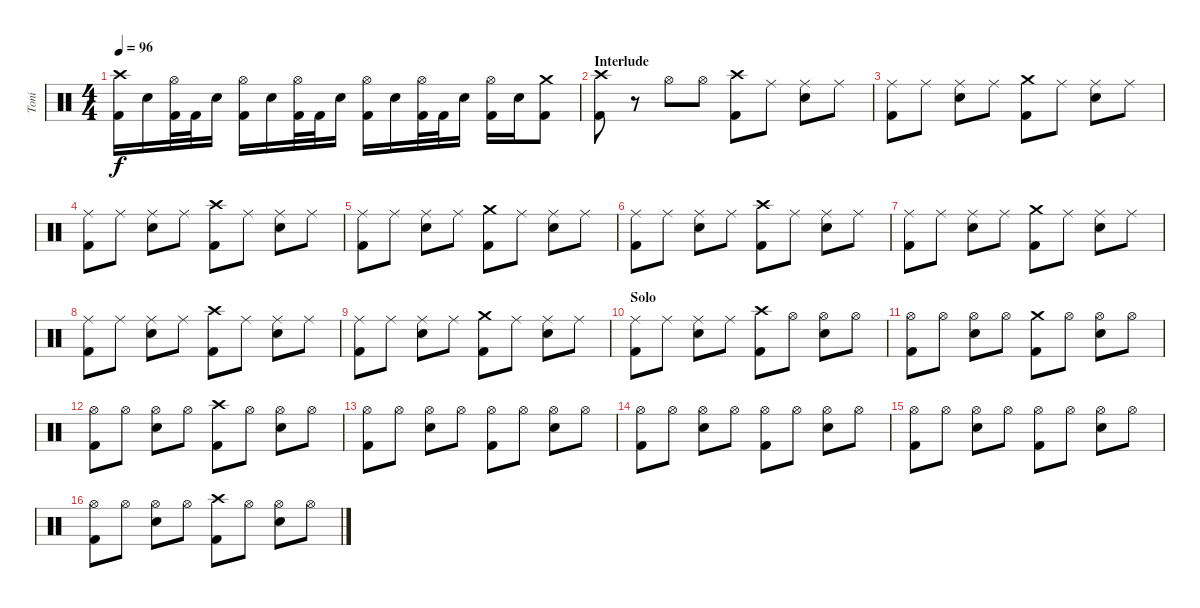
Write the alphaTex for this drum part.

\track ("Toni" "Toni") {instrument percussion}
\staff {score}
\articulation defaults
\ts (4 4)
\tempo 96
\clef neutral
\ks c
("Crash high (hit)" "Kick (hit) 2").16{dy f} "Electric Snare (hit)".16 ("Hi-Hat (open)" "Kick (hit) 2").32 "Kick (hit) 2".32 "Electric Snare (hit)".16 ("Hi-Hat (open)" "Kick (hit) 2").16 "Electric Snare (hit)".16 ("Hi-Hat (open)" "Kick (hit) 2").32 "Kick (hit) 2".32 "Electric Snare (hit)".16 ("Hi-Hat (open)" "Kick (hit) 2").16 "Electric Snare (hit)".16 ("Hi-Hat (open)" "Kick (hit) 2").32 "Kick (hit) 2".32 "Electric Snare (hit)".16 ("Hi-Hat (open)" "Kick (hit) 2").16 "Electric Snare (hit)".16 ("Crash medium (hit)" "Kick (hit) 2").8 |
\section ("" "Interlude")
("Crash high (hit)" "Kick (hit) 2").8 r.8 "Hi-Hat (open)".8 "Hi-Hat (open)".8 ("Crash high (hit)" "Kick (hit) 2").8 "Ride (middle)".8 ("Ride (middle)" "Electric Snare (hit)").8 "Ride (middle)".8 |
("Ride (middle)" "Kick (hit) 2").8 "Ride (middle)".8 ("Ride (middle)" "Electric Snare (hit)").8 "Ride (middle)".8 ("Crash medium (hit)" "Kick (hit) 2").8 "Ride (middle)".8 ("Ride (middle)" "Electric Snare (hit)").8 "Ride (middle)".8 |
("Ride (middle)" "Kick (hit) 2").8 "Ride (middle)".8 ("Ride (middle)" "Electric Snare (hit)").8 "Ride (middle)".8 ("Crash high (hit)" "Kick (hit) 2").8 "Ride (middle)".8 ("Ride (middle)" "Electric Snare (hit)").8 "Ride (middle)".8 |
("Ride (middle)" "Kick (hit) 2").8 "Ride (middle)".8 ("Ride (middle)" "Electric Snare (hit)").8 "Ride (middle)".8 ("Crash medium (hit)" "Kick (hit) 2").8 "Ride (middle)".8 ("Ride (middle)" "Electric Snare (hit)").8 "Ride (middle)".8 |
("Ride (middle)" "Kick (hit) 2").8 "Ride (middle)".8 ("Ride (middle)" "Electric Snare (hit)").8 "Ride (middle)".8 ("Crash high (hit)" "Kick (hit) 2").8 "Ride (middle)".8 ("Ride (middle)" "Electric Snare (hit)").8 "Ride (middle)".8 |
("Ride (middle)" "Kick (hit) 2").8 "Ride (middle)".8 ("Ride (middle)" "Electric Snare (hit)").8 "Ride (middle)".8 ("Crash medium (hit)" "Kick (hit) 2").8 "Ride (middle)".8 ("Ride (middle)" "Electric Snare (hit)").8 "Ride (middle)".8 |
("Ride (middle)" "Kick (hit) 2").8 "Ride (middle)".8 ("Ride (middle)" "Electric Snare (hit)").8 "Ride (middle)".8 ("Crash high (hit)" "Kick (hit) 2").8 "Ride (middle)".8 ("Ride (middle)" "Electric Snare (hit)").8 "Ride (middle)".8 |
("Ride (middle)" "Kick (hit) 2").8 "Ride (middle)".8 ("Ride (middle)" "Electric Snare (hit)").8 "Ride (middle)".8 ("Crash medium (hit)" "Kick (hit) 2").8 "Ride (middle)".8 ("Ride (middle)" "Electric Snare (hit)").8 "Ride (middle)".8 |
\section ("" "Solo")
("Ride (middle)" "Kick (hit) 2").8 "Ride (middle)".8 ("Ride (middle)" "Electric Snare (hit)").8 "Ride (middle)".8 ("Crash high (hit)" "Kick (hit) 2").8 "Hi-Hat (open)".8 ("Hi-Hat (open)" "Electric Snare (hit)").8 "Hi-Hat (open)".8 |
("Hi-Hat (open)" "Kick (hit) 2").8 "Hi-Hat (open)".8 ("Hi-Hat (open)" "Electric Snare (hit)").8 "Hi-Hat (open)".8 ("Crash medium (hit)" "Kick (hit) 2").8 "Hi-Hat (open)".8 ("Hi-Hat (open)" "Electric Snare (hit)").8 "Hi-Hat (open)".8 |
("Hi-Hat (open)" "Kick (hit) 2").8 "Hi-Hat (open)".8 ("Hi-Hat (open)" "Electric Snare (hit)").8 "Hi-Hat (open)".8 ("Crash high (hit)" "Kick (hit) 2").8 "Hi-Hat (open)".8 ("Hi-Hat (open)" "Electric Snare (hit)").8 "Hi-Hat (open)".8 |
("Hi-Hat (open)" "Kick (hit) 2").8 "Hi-Hat (open)".8 ("Hi-Hat (open)" "Electric Snare (hit)").8 "Hi-Hat (open)".8 ("Hi-Hat (open)" "Kick (hit) 2").8 "Hi-Hat (open)".8 ("Hi-Hat (open)" "Electric Snare (hit)").8 "Hi-Hat (open)".8 |
("Hi-Hat (open)" "Kick (hit) 2").8 "Hi-Hat (open)".8 ("Hi-Hat (open)" "Electric Snare (hit)").8 "Hi-Hat (open)".8 ("Hi-Hat (open)" "Kick (hit) 2").8 "Hi-Hat (open)".8 ("Hi-Hat (open)" "Electric Snare (hit)").8 "Hi-Hat (open)".8 |
("Hi-Hat (open)" "Kick (hit) 2").8 "Hi-Hat (open)".8 ("Hi-Hat (open)" "Electric Snare (hit)").8 "Hi-Hat (open)".8 ("Hi-Hat (open)" "Kick (hit) 2").8 "Hi-Hat (open)".8 ("Hi-Hat (open)" "Electric Snare (hit)").8 "Hi-Hat (open)".8 |
("Hi-Hat (open)" "Kick (hit) 2").8 "Hi-Hat (open)".8 ("Hi-Hat (open)" "Electric Snare (hit)").8 "Hi-Hat (open)".8 ("Crash high (hit)" "Kick (hit) 2").8 "Hi-Hat (open)".8 ("Hi-Hat (open)" "Electric Snare (hit)").8 "Hi-Hat (open)".8
